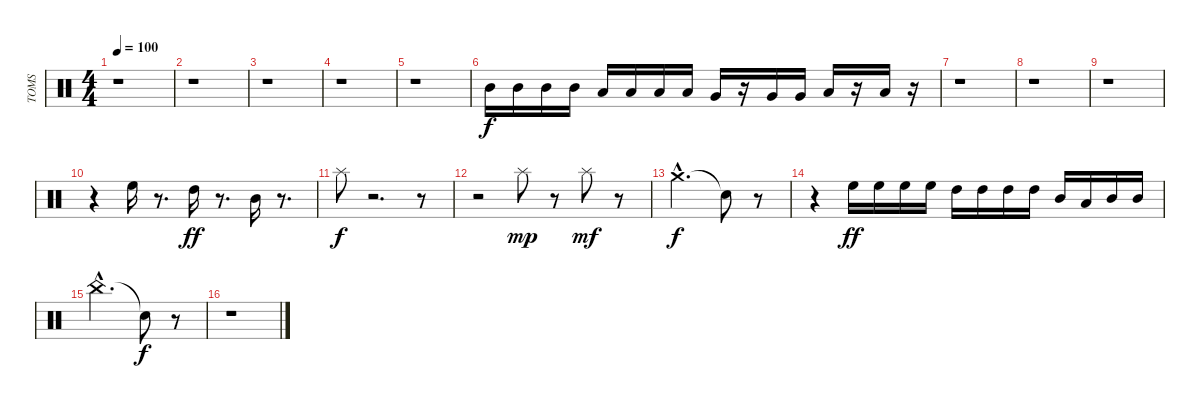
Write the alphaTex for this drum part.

\track ("TOMS" "TOMS") {instrument percussion}
\staff {score}
\articulation defaults
\ts (4 4)
\tempo 100
\clef neutral
\ks c
r.1{dy f} |
r.1 |
r.1 |
r.1 |
r.1 |
"Mid Tom (hit)".16 "Mid Tom (hit)".16 "Mid Tom (hit)".16 "Mid Tom (hit)".16 "Low Tom (hit)".16 "Low Tom (hit)".16 "Low Tom (hit)".16 "Low Tom (hit)".16 "Very Low Tom (hit)".16 r.16 "Very Low Tom (hit)".16 "Very Low Tom (hit)".16 "Low Floor Tom (hit)".16 r.16 "Low Floor Tom (hit)".16 r.16 |
r.1 |
r.1 |
r.1 |
r.4 "High Floor Tom (hit)".16 r.8{d} "High Tom (hit)".16{dy ff} r.8{d} "Mid Tom (hit)".16 r.8{d} |
"Splash (hit)".8{dy f} r.2{d} r.8 |
r.2 "Splash (hit)".8{dy mp} r.8 "Splash (hit)".8{dy mf} r.8 |
"Crash medium (hit)"{hac}.2{d dy f} "Snare (hit)"{t}.8 r.8 |
r.4 "High Floor Tom (hit)".16{dy ff} "High Floor Tom (hit)".16 "High Floor Tom (hit)".16 "High Floor Tom (hit)".16 "High Tom (hit)".16 "High Tom (hit)".16 "High Tom (hit)".16 "High Tom (hit)".16 "Mid Tom (hit)".16 "Low Tom (hit)".16 "Mid Tom (hit)".16 "Mid Tom (hit)".16 |
"China (hit)"{hac}.2{d} "Snare (hit)"{t}.8{dy f} r.8 |
r.1
